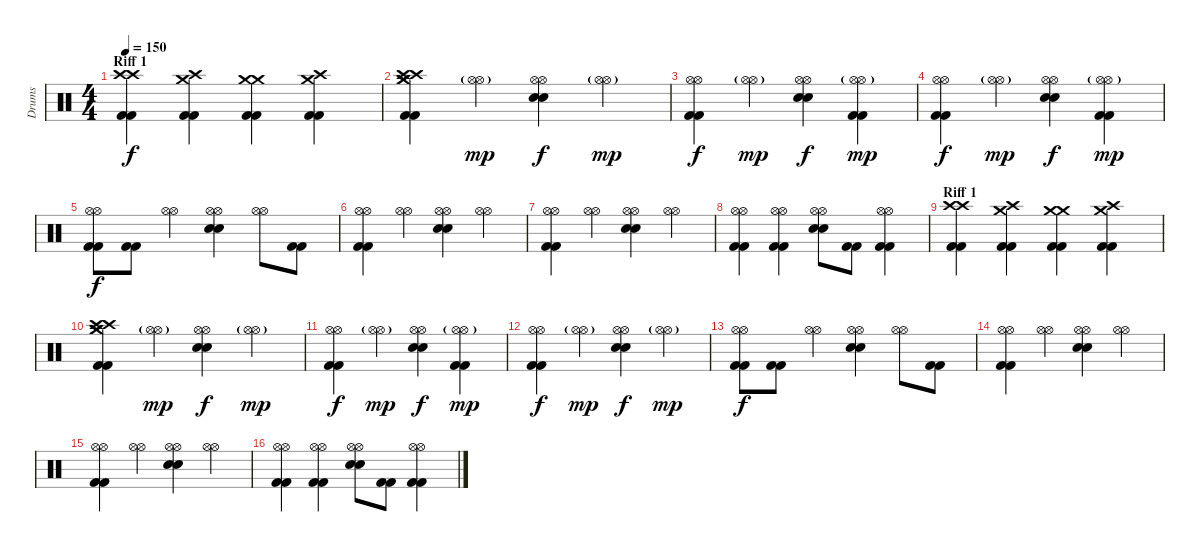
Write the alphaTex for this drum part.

\track ("Drums" "Drums") {instrument percussion}
\staff {score}
\articulation defaults
\ts (4 4)
\section ("" "Riff 1")
\tempo 150
\clef neutral
\ks c
("Crash high (hit)" "Crash high (hit)" "Kick (hit) 2" "Kick (hit) 2").4{dy f} ("Crash high (hit)" "Crash medium (hit)" "Kick (hit) 2" "Kick (hit) 2").4 ("Crash medium (hit)" "Crash medium (hit)" "Kick (hit) 2" "Kick (hit) 2").4 ("Crash medium (hit)" "Crash high (hit)" "Kick (hit) 2" "Kick (hit) 2").4 |
("Crash high (hit)" "Crash high (hit)" "Crash medium (hit)" "Crash medium (hit)" "Kick (hit) 2" "Kick (hit) 2").4 ("Hi-Hat (open)"{g} "Hi-Hat (open)"{g}).4{dy mp} ("Hi-Hat (open)" "Hi-Hat (open)" "Electric Snare (hit)" "Electric Snare (hit)").4{dy f} ("Hi-Hat (open)"{g} "Hi-Hat (open)"{g}).4{dy mp} |
("Hi-Hat (open)" "Hi-Hat (open)" "Kick (hit) 2" "Kick (hit) 2").4{dy f} ("Hi-Hat (open)"{g} "Hi-Hat (open)"{g}).4{dy mp} ("Hi-Hat (open)" "Hi-Hat (open)" "Electric Snare (hit)" "Electric Snare (hit)").4{dy f} ("Hi-Hat (open)"{g} "Hi-Hat (open)"{g} "Kick (hit) 2" "Kick (hit) 2").4{dy mp} |
("Hi-Hat (open)" "Hi-Hat (open)" "Kick (hit) 2" "Kick (hit) 2").4{dy f} ("Hi-Hat (open)"{g} "Hi-Hat (open)"{g}).4{dy mp} ("Hi-Hat (open)" "Hi-Hat (open)" "Electric Snare (hit)" "Electric Snare (hit)").4{dy f} ("Hi-Hat (open)"{g} "Hi-Hat (open)"{g} "Kick (hit) 2" "Kick (hit) 2").4{dy mp} |
("Hi-Hat (open)" "Hi-Hat (open)" "Kick (hit) 2" "Kick (hit) 2").8{dy f} ("Kick (hit) 2" "Kick (hit) 2").8 ("Hi-Hat (open)" "Hi-Hat (open)").4 ("Hi-Hat (open)" "Hi-Hat (open)" "Electric Snare (hit)" "Electric Snare (hit)").4 ("Hi-Hat (open)" "Hi-Hat (open)").8 ("Kick (hit) 2" "Kick (hit) 2").8 |
("Hi-Hat (open)" "Hi-Hat (open)" "Kick (hit) 2" "Kick (hit) 2").4 ("Hi-Hat (open)" "Hi-Hat (open)").4 ("Hi-Hat (open)" "Hi-Hat (open)" "Electric Snare (hit)" "Electric Snare (hit)").4 ("Hi-Hat (open)" "Hi-Hat (open)").4 |
("Hi-Hat (open)" "Hi-Hat (open)" "Kick (hit) 2" "Kick (hit) 2").4 ("Hi-Hat (open)" "Hi-Hat (open)").4 ("Hi-Hat (open)" "Hi-Hat (open)" "Electric Snare (hit)" "Electric Snare (hit)").4 ("Hi-Hat (open)" "Hi-Hat (open)").4 |
("Hi-Hat (open)" "Hi-Hat (open)" "Kick (hit) 2" "Kick (hit) 2").4 ("Hi-Hat (open)" "Hi-Hat (open)" "Kick (hit) 2" "Kick (hit) 2").4 ("Hi-Hat (open)" "Hi-Hat (open)" "Electric Snare (hit)" "Electric Snare (hit)").8 ("Kick (hit) 2" "Kick (hit) 2").8 ("Hi-Hat (open)" "Hi-Hat (open)" "Kick (hit) 2" "Kick (hit) 2").4 |
\section ("" "Riff 1")
("Crash high (hit)" "Crash high (hit)" "Kick (hit) 2" "Kick (hit) 2").4 ("Crash high (hit)" "Crash medium (hit)" "Kick (hit) 2" "Kick (hit) 2").4 ("Crash medium (hit)" "Crash medium (hit)" "Kick (hit) 2" "Kick (hit) 2").4 ("Crash medium (hit)" "Crash high (hit)" "Kick (hit) 2" "Kick (hit) 2").4 |
("Crash high (hit)" "Crash high (hit)" "Crash medium (hit)" "Crash medium (hit)" "Kick (hit) 2" "Kick (hit) 2").4 ("Hi-Hat (open)"{g} "Hi-Hat (open)"{g}).4{dy mp} ("Hi-Hat (open)" "Hi-Hat (open)" "Electric Snare (hit)" "Electric Snare (hit)").4{dy f} ("Hi-Hat (open)"{g} "Hi-Hat (open)"{g}).4{dy mp} |
("Hi-Hat (open)" "Hi-Hat (open)" "Kick (hit) 2" "Kick (hit) 2").4{dy f} ("Hi-Hat (open)"{g} "Hi-Hat (open)"{g}).4{dy mp} ("Hi-Hat (open)" "Hi-Hat (open)" "Electric Snare (hit)" "Electric Snare (hit)").4{dy f} ("Hi-Hat (open)"{g} "Hi-Hat (open)"{g} "Kick (hit) 2" "Kick (hit) 2").4{dy mp} |
("Hi-Hat (open)" "Hi-Hat (open)" "Kick (hit) 2" "Kick (hit) 2").4{dy f} ("Hi-Hat (open)"{g} "Hi-Hat (open)"{g}).4{dy mp} ("Hi-Hat (open)" "Hi-Hat (open)" "Electric Snare (hit)" "Electric Snare (hit)").4{dy f} ("Hi-Hat (open)"{g} "Hi-Hat (open)"{g}).4{dy mp} |
("Hi-Hat (open)" "Hi-Hat (open)" "Kick (hit) 2" "Kick (hit) 2").8{dy f} ("Kick (hit) 2" "Kick (hit) 2").8 ("Hi-Hat (open)" "Hi-Hat (open)").4 ("Hi-Hat (open)" "Hi-Hat (open)" "Electric Snare (hit)" "Electric Snare (hit)").4 ("Hi-Hat (open)" "Hi-Hat (open)").8 ("Kick (hit) 2" "Kick (hit) 2").8 |
("Hi-Hat (open)" "Hi-Hat (open)" "Kick (hit) 2" "Kick (hit) 2").4 ("Hi-Hat (open)" "Hi-Hat (open)").4 ("Hi-Hat (open)" "Hi-Hat (open)" "Electric Snare (hit)" "Electric Snare (hit)").4 ("Hi-Hat (open)" "Hi-Hat (open)").4 |
("Hi-Hat (open)" "Hi-Hat (open)" "Kick (hit) 2" "Kick (hit) 2").4 ("Hi-Hat (open)" "Hi-Hat (open)").4 ("Hi-Hat (open)" "Hi-Hat (open)" "Electric Snare (hit)" "Electric Snare (hit)").4 ("Hi-Hat (open)" "Hi-Hat (open)").4 |
("Hi-Hat (open)" "Hi-Hat (open)" "Kick (hit) 2" "Kick (hit) 2").4 ("Hi-Hat (open)" "Hi-Hat (open)" "Kick (hit) 2" "Kick (hit) 2").4 ("Hi-Hat (open)" "Hi-Hat (open)" "Electric Snare (hit)" "Electric Snare (hit)").8 ("Kick (hit) 2" "Kick (hit) 2").8 ("Hi-Hat (open)" "Hi-Hat (open)" "Kick (hit) 2" "Kick (hit) 2").4
